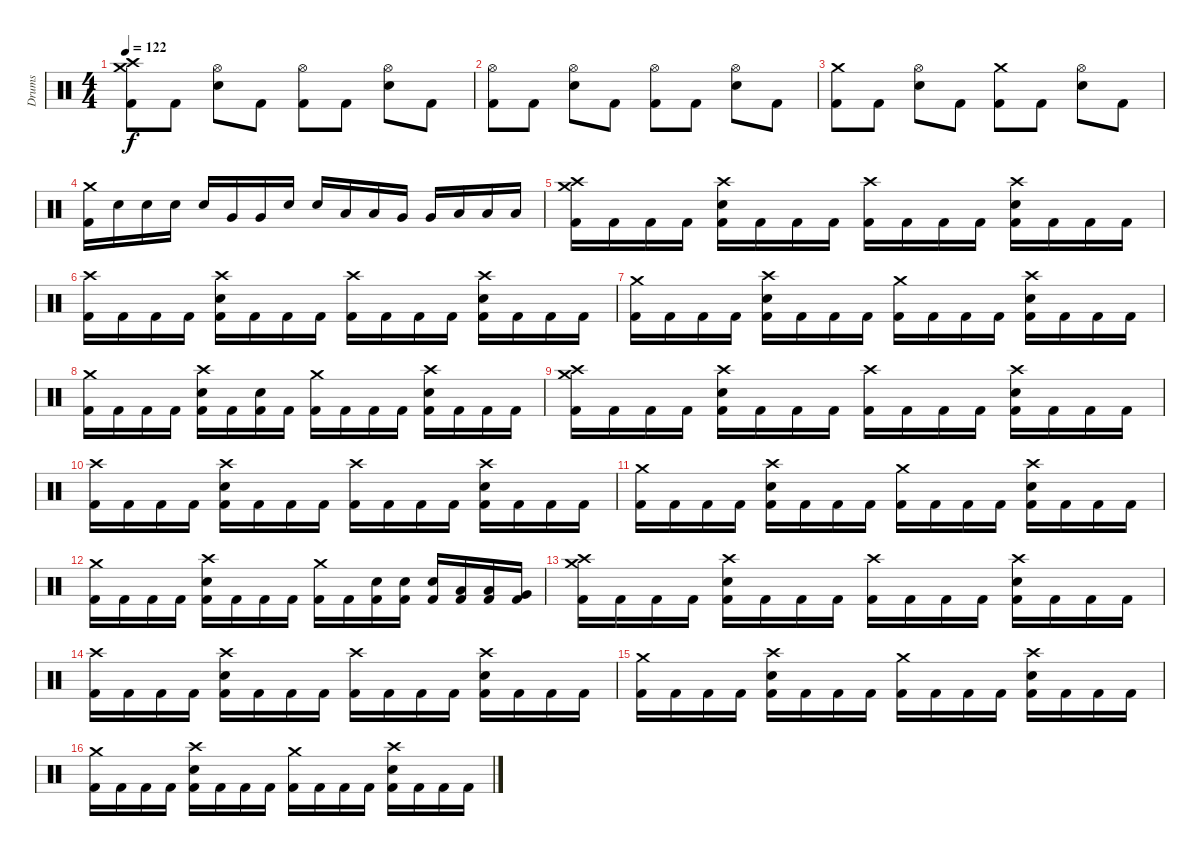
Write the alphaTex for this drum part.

\track ("Drums" "Drums") {instrument percussion}
\staff {score}
\articulation defaults
\ts (4 4)
\tempo 122
\clef neutral
\ks c
("Crash medium (hit)" "Crash high (hit)" "Kick (hit) 2").8{dy f} "Kick (hit) 2".8 ("Hi-Hat (open)" "Electric Snare (hit)").8 "Kick (hit) 2".8 ("Hi-Hat (open)" "Kick (hit) 2").8 "Kick (hit) 2".8 ("Hi-Hat (open)" "Electric Snare (hit)").8 "Kick (hit) 2".8 |
("Hi-Hat (open)" "Kick (hit) 2").8 "Kick (hit) 2".8 ("Hi-Hat (open)" "Electric Snare (hit)").8 "Kick (hit) 2".8 ("Hi-Hat (open)" "Kick (hit) 2").8 "Kick (hit) 2".8 ("Hi-Hat (open)" "Electric Snare (hit)").8 "Kick (hit) 2".8 |
("Crash medium (hit)" "Kick (hit) 2").8 "Kick (hit) 2".8 ("Hi-Hat (open)" "Electric Snare (hit)").8 "Kick (hit) 2".8 ("Crash medium (hit)" "Kick (hit) 2").8 "Kick (hit) 2".8 ("Hi-Hat (open)" "Electric Snare (hit)").8 "Kick (hit) 2".8 |
("Crash medium (hit)" "Kick (hit) 2").16 "Electric Snare (hit)".16 "Electric Snare (hit)".16 "Electric Snare (hit)".16 "Electric Snare (hit)".16 "Very Low Tom (hit)".16 "Very Low Tom (hit)".16 "Electric Snare (hit)".16 "Electric Snare (hit)".16 "Low Tom (hit)".16 "Low Tom (hit)".16 "Very Low Tom (hit)".16 "Very Low Tom (hit)".16 "Low Floor Tom (hit)".16 "Low Floor Tom (hit)".16 "Low Floor Tom (hit)".16 |
("Crash medium (hit)" "Crash high (hit)" "Kick (hit) 2").16 "Kick (hit) 2".16 "Kick (hit) 2".16 "Kick (hit) 2".16 ("Crash high (hit)" "Electric Snare (hit)" "Kick (hit) 2").16 "Kick (hit) 2".16 "Kick (hit) 2".16 "Kick (hit) 2".16 ("Crash high (hit)" "Kick (hit) 2").16 "Kick (hit) 2".16 "Kick (hit) 2".16 "Kick (hit) 2".16 ("Crash high (hit)" "Electric Snare (hit)" "Kick (hit) 2").16 "Kick (hit) 2".16 "Kick (hit) 2".16 "Kick (hit) 2".16 |
("Crash high (hit)" "Kick (hit) 2").16 "Kick (hit) 2".16 "Kick (hit) 2".16 "Kick (hit) 2".16 ("Crash high (hit)" "Electric Snare (hit)" "Kick (hit) 2").16 "Kick (hit) 2".16 "Kick (hit) 2".16 "Kick (hit) 2".16 ("Crash high (hit)" "Kick (hit) 2").16 "Kick (hit) 2".16 "Kick (hit) 2".16 "Kick (hit) 2".16 ("Crash high (hit)" "Electric Snare (hit)" "Kick (hit) 2").16 "Kick (hit) 2".16 "Kick (hit) 2".16 "Kick (hit) 2".16 |
("Crash medium (hit)" "Kick (hit) 2").16 "Kick (hit) 2".16 "Kick (hit) 2".16 "Kick (hit) 2".16 ("Crash high (hit)" "Electric Snare (hit)" "Kick (hit) 2").16 "Kick (hit) 2".16 "Kick (hit) 2".16 "Kick (hit) 2".16 ("Crash medium (hit)" "Kick (hit) 2").16 "Kick (hit) 2".16 "Kick (hit) 2".16 "Kick (hit) 2".16 ("Crash high (hit)" "Electric Snare (hit)" "Kick (hit) 2").16 "Kick (hit) 2".16 "Kick (hit) 2".16 "Kick (hit) 2".16 |
("Crash medium (hit)" "Kick (hit) 2").16 "Kick (hit) 2".16 "Kick (hit) 2".16 "Kick (hit) 2".16 ("Crash high (hit)" "Electric Snare (hit)" "Kick (hit) 2").16 "Kick (hit) 2".16 ("Electric Snare (hit)" "Kick (hit) 2").16 "Kick (hit) 2".16 ("Crash medium (hit)" "Kick (hit) 2").16 "Kick (hit) 2".16 "Kick (hit) 2".16 "Kick (hit) 2".16 ("Crash high (hit)" "Electric Snare (hit)" "Kick (hit) 2").16 "Kick (hit) 2".16 "Kick (hit) 2".16 "Kick (hit) 2".16 |
("Crash medium (hit)" "Crash high (hit)" "Kick (hit) 2").16 "Kick (hit) 2".16 "Kick (hit) 2".16 "Kick (hit) 2".16 ("Crash high (hit)" "Electric Snare (hit)" "Kick (hit) 2").16 "Kick (hit) 2".16 "Kick (hit) 2".16 "Kick (hit) 2".16 ("Crash high (hit)" "Kick (hit) 2").16 "Kick (hit) 2".16 "Kick (hit) 2".16 "Kick (hit) 2".16 ("Crash high (hit)" "Electric Snare (hit)" "Kick (hit) 2").16 "Kick (hit) 2".16 "Kick (hit) 2".16 "Kick (hit) 2".16 |
("Crash high (hit)" "Kick (hit) 2").16 "Kick (hit) 2".16 "Kick (hit) 2".16 "Kick (hit) 2".16 ("Crash high (hit)" "Electric Snare (hit)" "Kick (hit) 2").16 "Kick (hit) 2".16 "Kick (hit) 2".16 "Kick (hit) 2".16 ("Crash high (hit)" "Kick (hit) 2").16 "Kick (hit) 2".16 "Kick (hit) 2".16 "Kick (hit) 2".16 ("Crash high (hit)" "Electric Snare (hit)" "Kick (hit) 2").16 "Kick (hit) 2".16 "Kick (hit) 2".16 "Kick (hit) 2".16 |
("Crash medium (hit)" "Kick (hit) 2").16 "Kick (hit) 2".16 "Kick (hit) 2".16 "Kick (hit) 2".16 ("Crash high (hit)" "Electric Snare (hit)" "Kick (hit) 2").16 "Kick (hit) 2".16 "Kick (hit) 2".16 "Kick (hit) 2".16 ("Crash medium (hit)" "Kick (hit) 2").16 "Kick (hit) 2".16 "Kick (hit) 2".16 "Kick (hit) 2".16 ("Crash high (hit)" "Electric Snare (hit)" "Kick (hit) 2").16 "Kick (hit) 2".16 "Kick (hit) 2".16 "Kick (hit) 2".16 |
("Crash medium (hit)" "Kick (hit) 2").16 "Kick (hit) 2".16 "Kick (hit) 2".16 "Kick (hit) 2".16 ("Crash high (hit)" "Electric Snare (hit)" "Kick (hit) 2").16 "Kick (hit) 2".16 "Kick (hit) 2".16 "Kick (hit) 2".16 ("Crash medium (hit)" "Kick (hit) 2").16 "Kick (hit) 2".16 ("Electric Snare (hit)" "Kick (hit) 2").16 ("Electric Snare (hit)" "Kick (hit) 2").16 ("Electric Snare (hit)" "Kick (hit) 2").16 ("Low Tom (hit)" "Kick (hit) 2").16 ("Low Tom (hit)" "Kick (hit) 2").16 ("Very Low Tom (hit)" "Kick (hit) 2").16 |
("Crash medium (hit)" "Crash high (hit)" "Kick (hit) 2").16 "Kick (hit) 2".16 "Kick (hit) 2".16 "Kick (hit) 2".16 ("Crash high (hit)" "Electric Snare (hit)" "Kick (hit) 2").16 "Kick (hit) 2".16 "Kick (hit) 2".16 "Kick (hit) 2".16 ("Crash high (hit)" "Kick (hit) 2").16 "Kick (hit) 2".16 "Kick (hit) 2".16 "Kick (hit) 2".16 ("Crash high (hit)" "Electric Snare (hit)" "Kick (hit) 2").16 "Kick (hit) 2".16 "Kick (hit) 2".16 "Kick (hit) 2".16 |
("Crash high (hit)" "Kick (hit) 2").16 "Kick (hit) 2".16 "Kick (hit) 2".16 "Kick (hit) 2".16 ("Crash high (hit)" "Electric Snare (hit)" "Kick (hit) 2").16 "Kick (hit) 2".16 "Kick (hit) 2".16 "Kick (hit) 2".16 ("Crash high (hit)" "Kick (hit) 2").16 "Kick (hit) 2".16 "Kick (hit) 2".16 "Kick (hit) 2".16 ("Crash high (hit)" "Electric Snare (hit)" "Kick (hit) 2").16 "Kick (hit) 2".16 "Kick (hit) 2".16 "Kick (hit) 2".16 |
("Crash medium (hit)" "Kick (hit) 2").16 "Kick (hit) 2".16 "Kick (hit) 2".16 "Kick (hit) 2".16 ("Crash high (hit)" "Electric Snare (hit)" "Kick (hit) 2").16 "Kick (hit) 2".16 "Kick (hit) 2".16 "Kick (hit) 2".16 ("Crash medium (hit)" "Kick (hit) 2").16 "Kick (hit) 2".16 "Kick (hit) 2".16 "Kick (hit) 2".16 ("Crash high (hit)" "Electric Snare (hit)" "Kick (hit) 2").16 "Kick (hit) 2".16 "Kick (hit) 2".16 "Kick (hit) 2".16 |
("Crash medium (hit)" "Kick (hit) 2").16 "Kick (hit) 2".16 "Kick (hit) 2".16 "Kick (hit) 2".16 ("Crash high (hit)" "Electric Snare (hit)" "Kick (hit) 2").16 "Kick (hit) 2".16 "Kick (hit) 2".16 "Kick (hit) 2".16 ("Crash medium (hit)" "Kick (hit) 2").16 "Kick (hit) 2".16 "Kick (hit) 2".16 "Kick (hit) 2".16 ("Crash high (hit)" "Electric Snare (hit)" "Kick (hit) 2").16 "Kick (hit) 2".16 "Kick (hit) 2".16 "Kick (hit) 2".16
